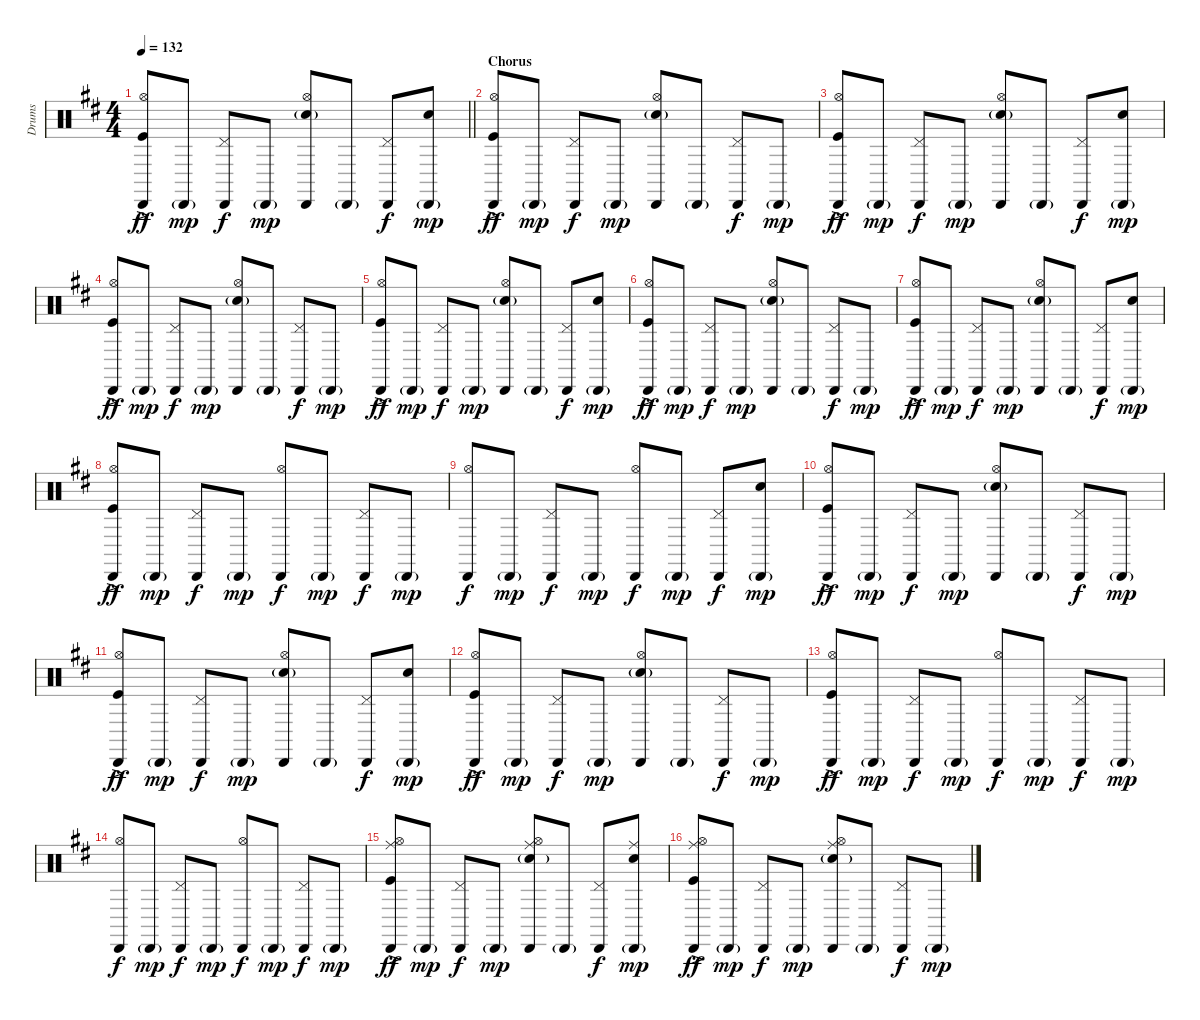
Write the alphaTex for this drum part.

\track ("Drums" "Drums") {instrument percussion}
\staff {score}
\articulation defaults
\ts (4 4)
\tempo 132
\clef neutral
\barLineRight lightlight
\ks d
("Cabasa (hit)" "Hi-Hat (open)" "Kick (hit)"{ac}).8{dy ff} "Cabasa (hit)"{g}.8{dy mp} ("Cabasa (hit)" "Pedal Hi-Hat (hit)").8{dy f} "Cabasa (hit)"{g}.8{dy mp} ("Cabasa (hit)" "Hi-Hat (open)" "Snare (hit) 2"{g}).8 "Cabasa (hit)"{g}.8 ("Cabasa (hit)" "Pedal Hi-Hat (hit)").8{dy f} ("Cabasa (hit)"{g} "Snare (hit) 2").8{dy mp} |
\section ("" "Chorus")
("Cabasa (hit)" "Hi-Hat (open)" "Kick (hit)"{ac}).8{dy ff} "Cabasa (hit)"{g}.8{dy mp} ("Cabasa (hit)" "Pedal Hi-Hat (hit)").8{dy f} "Cabasa (hit)"{g}.8{dy mp} ("Cabasa (hit)" "Hi-Hat (open)" "Snare (hit) 2"{g}).8 "Cabasa (hit)"{g}.8 ("Cabasa (hit)" "Pedal Hi-Hat (hit)").8{dy f} "Cabasa (hit)"{g}.8{dy mp} |
("Cabasa (hit)" "Hi-Hat (open)" "Kick (hit)"{ac}).8{dy ff} "Cabasa (hit)"{g}.8{dy mp} ("Cabasa (hit)" "Pedal Hi-Hat (hit)").8{dy f} "Cabasa (hit)"{g}.8{dy mp} ("Cabasa (hit)" "Hi-Hat (open)" "Snare (hit) 2"{g}).8 "Cabasa (hit)"{g}.8 ("Cabasa (hit)" "Pedal Hi-Hat (hit)").8{dy f} ("Cabasa (hit)"{g} "Snare (hit) 2").8{dy mp} |
("Cabasa (hit)" "Hi-Hat (open)" "Kick (hit)"{ac}).8{dy ff} "Cabasa (hit)"{g}.8{dy mp} ("Cabasa (hit)" "Pedal Hi-Hat (hit)").8{dy f} "Cabasa (hit)"{g}.8{dy mp} ("Cabasa (hit)" "Hi-Hat (open)" "Snare (hit) 2"{g}).8 "Cabasa (hit)"{g}.8 ("Cabasa (hit)" "Pedal Hi-Hat (hit)").8{dy f} "Cabasa (hit)"{g}.8{dy mp} |
("Cabasa (hit)" "Hi-Hat (open)" "Kick (hit)"{ac}).8{dy ff} "Cabasa (hit)"{g}.8{dy mp} ("Cabasa (hit)" "Pedal Hi-Hat (hit)").8{dy f} "Cabasa (hit)"{g}.8{dy mp} ("Cabasa (hit)" "Hi-Hat (open)" "Snare (hit) 2"{g}).8 "Cabasa (hit)"{g}.8 ("Cabasa (hit)" "Pedal Hi-Hat (hit)").8{dy f} ("Cabasa (hit)"{g} "Snare (hit) 2").8{dy mp} |
("Cabasa (hit)" "Hi-Hat (open)" "Kick (hit)"{ac}).8{dy ff} "Cabasa (hit)"{g}.8{dy mp} ("Cabasa (hit)" "Pedal Hi-Hat (hit)").8{dy f} "Cabasa (hit)"{g}.8{dy mp} ("Cabasa (hit)" "Hi-Hat (open)" "Snare (hit) 2"{g}).8 "Cabasa (hit)"{g}.8 ("Cabasa (hit)" "Pedal Hi-Hat (hit)").8{dy f} "Cabasa (hit)"{g}.8{dy mp} |
("Cabasa (hit)" "Hi-Hat (open)" "Kick (hit)"{ac}).8{dy ff} "Cabasa (hit)"{g}.8{dy mp} ("Cabasa (hit)" "Pedal Hi-Hat (hit)").8{dy f} "Cabasa (hit)"{g}.8{dy mp} ("Cabasa (hit)" "Hi-Hat (open)" "Snare (hit) 2"{g}).8 "Cabasa (hit)"{g}.8 ("Cabasa (hit)" "Pedal Hi-Hat (hit)").8{dy f} ("Cabasa (hit)"{g} "Snare (hit) 2").8{dy mp} |
("Cabasa (hit)" "Hi-Hat (open)" "Kick (hit)"{ac}).8{dy ff} "Cabasa (hit)"{g}.8{dy mp} ("Cabasa (hit)" "Pedal Hi-Hat (hit)").8{dy f} "Cabasa (hit)"{g}.8{dy mp} ("Cabasa (hit)" "Hi-Hat (open)").8{dy f} "Cabasa (hit)"{g}.8{dy mp} ("Cabasa (hit)" "Pedal Hi-Hat (hit)").8{dy f} "Cabasa (hit)"{g}.8{dy mp} |
("Cabasa (hit)" "Hi-Hat (open)").8{dy f} "Cabasa (hit)"{g}.8{dy mp} ("Cabasa (hit)" "Pedal Hi-Hat (hit)").8{dy f} "Cabasa (hit)"{g}.8{dy mp} ("Cabasa (hit)" "Hi-Hat (open)").8{dy f} "Cabasa (hit)"{g}.8{dy mp} ("Cabasa (hit)" "Pedal Hi-Hat (hit)").8{dy f} ("Cabasa (hit)"{g} "Snare (hit) 2").8{dy mp} |
("Cabasa (hit)" "Hi-Hat (open)" "Kick (hit)"{ac}).8{dy ff} "Cabasa (hit)"{g}.8{dy mp} ("Cabasa (hit)" "Pedal Hi-Hat (hit)").8{dy f} "Cabasa (hit)"{g}.8{dy mp} ("Cabasa (hit)" "Hi-Hat (open)" "Snare (hit) 2"{g}).8 "Cabasa (hit)"{g}.8 ("Cabasa (hit)" "Pedal Hi-Hat (hit)").8{dy f} "Cabasa (hit)"{g}.8{dy mp} |
("Cabasa (hit)" "Hi-Hat (open)" "Kick (hit)"{ac}).8{dy ff} "Cabasa (hit)"{g}.8{dy mp} ("Cabasa (hit)" "Pedal Hi-Hat (hit)").8{dy f} "Cabasa (hit)"{g}.8{dy mp} ("Cabasa (hit)" "Hi-Hat (open)" "Snare (hit) 2"{g}).8 "Cabasa (hit)"{g}.8 ("Cabasa (hit)" "Pedal Hi-Hat (hit)").8{dy f} ("Cabasa (hit)"{g} "Snare (hit) 2").8{dy mp} |
("Cabasa (hit)" "Hi-Hat (open)" "Kick (hit)"{ac}).8{dy ff} "Cabasa (hit)"{g}.8{dy mp} ("Cabasa (hit)" "Pedal Hi-Hat (hit)").8{dy f} "Cabasa (hit)"{g}.8{dy mp} ("Cabasa (hit)" "Hi-Hat (open)" "Snare (hit) 2"{g}).8 "Cabasa (hit)"{g}.8 ("Cabasa (hit)" "Pedal Hi-Hat (hit)").8{dy f} "Cabasa (hit)"{g}.8{dy mp} |
("Cabasa (hit)" "Hi-Hat (open)" "Kick (hit)"{ac}).8{dy ff} "Cabasa (hit)"{g}.8{dy mp} ("Cabasa (hit)" "Pedal Hi-Hat (hit)").8{dy f} "Cabasa (hit)"{g}.8{dy mp} ("Cabasa (hit)" "Hi-Hat (open)").8{dy f} "Cabasa (hit)"{g}.8{dy mp} ("Cabasa (hit)" "Pedal Hi-Hat (hit)").8{dy f} "Cabasa (hit)"{g}.8{dy mp} |
("Cabasa (hit)" "Hi-Hat (open)").8{dy f} "Cabasa (hit)"{g}.8{dy mp} ("Cabasa (hit)" "Pedal Hi-Hat (hit)").8{dy f} "Cabasa (hit)"{g}.8{dy mp} ("Cabasa (hit)" "Hi-Hat (open)").8{dy f} "Cabasa (hit)"{g}.8{dy mp} ("Cabasa (hit)" "Pedal Hi-Hat (hit)").8{dy f} "Cabasa (hit)"{g}.8{dy mp} |
("Cabasa (hit)" "Hi-Hat (open)" "Ride (middle)" "Kick (hit)"{ac}).8{dy ff} "Cabasa (hit)"{g}.8{dy mp} ("Cabasa (hit)" "Pedal Hi-Hat (hit)").8{dy f} "Cabasa (hit)"{g}.8{dy mp} ("Cabasa (hit)" "Hi-Hat (open)" "Snare (hit) 2"{g} "Ride (middle)").8 "Cabasa (hit)"{g}.8 ("Cabasa (hit)" "Pedal Hi-Hat (hit)").8{dy f} ("Cabasa (hit)"{g} "Snare (hit) 2" "Ride (middle)").8{dy mp} |
("Cabasa (hit)" "Hi-Hat (open)" "Ride (middle)" "Kick (hit)"{ac}).8{dy ff} "Cabasa (hit)"{g}.8{dy mp} ("Cabasa (hit)" "Pedal Hi-Hat (hit)").8{dy f} "Cabasa (hit)"{g}.8{dy mp} ("Cabasa (hit)" "Hi-Hat (open)" "Snare (hit) 2"{g} "Ride (middle)").8 "Cabasa (hit)"{g}.8 ("Cabasa (hit)" "Pedal Hi-Hat (hit)").8{dy f} "Cabasa (hit)"{g}.8{dy mp}
